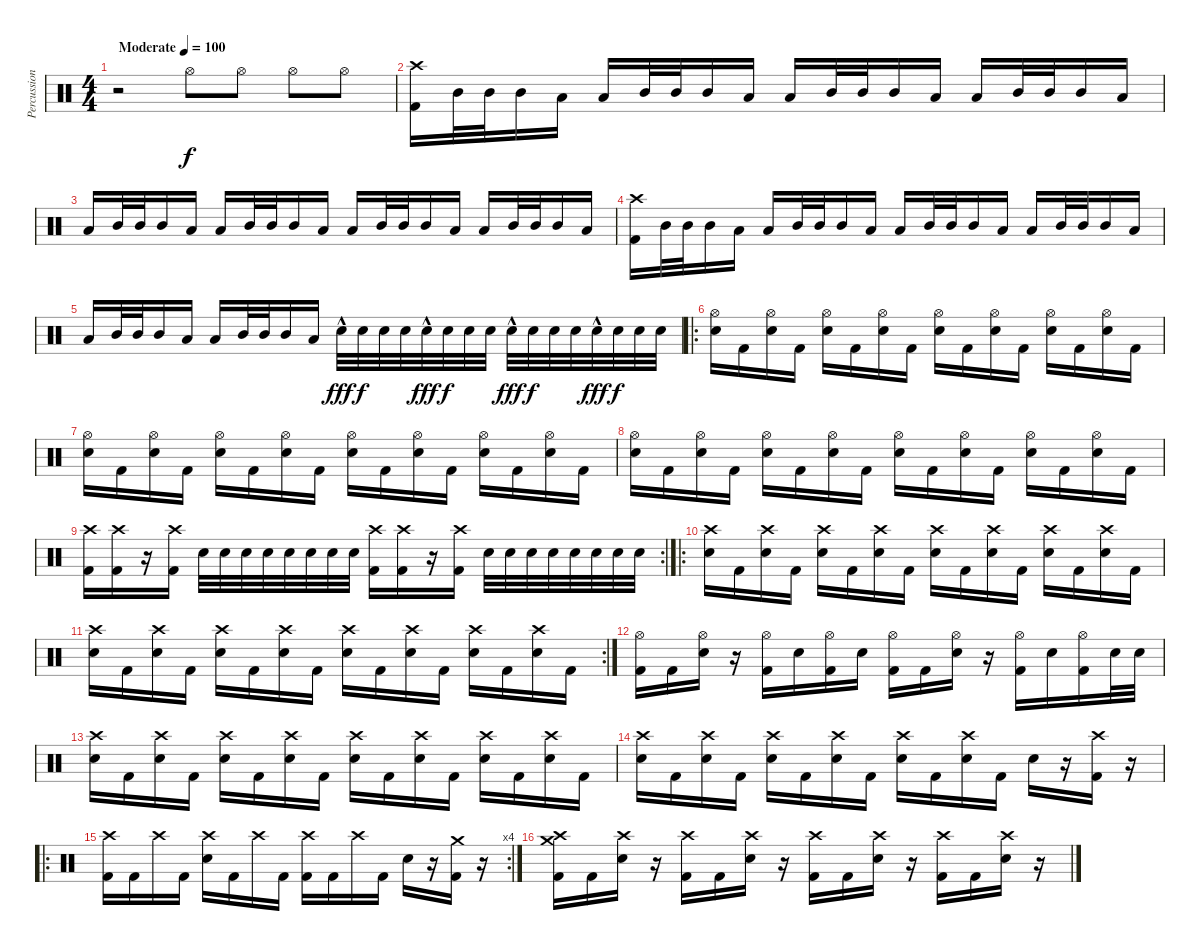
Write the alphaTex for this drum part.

\track ("Percussion" "Percussion") {instrument percussion}
\staff {score}
\articulation defaults
\ts (4 4)
\tempo (100 "Moderate")
\clef neutral
\ks c
r.2{dy f} "Hi-Hat (open)".8 "Hi-Hat (open)".8 "Hi-Hat (open)".8 "Hi-Hat (open)".8 |
("Crash high (hit)" "Kick (hit) 2").16 "Mid Tom (hit)".32 "Mid Tom (hit)".32 "Mid Tom (hit)".16 "Low Tom (hit)".16 "Low Tom (hit)".16 "Mid Tom (hit)".32 "Mid Tom (hit)".32 "Mid Tom (hit)".16 "Low Tom (hit)".16 "Low Tom (hit)".16 "Mid Tom (hit)".32 "Mid Tom (hit)".32 "Mid Tom (hit)".16 "Low Tom (hit)".16 "Low Tom (hit)".16 "Mid Tom (hit)".32 "Mid Tom (hit)".32 "Mid Tom (hit)".16 "Low Tom (hit)".16 |
"Low Tom (hit)".16 "Mid Tom (hit)".32 "Mid Tom (hit)".32 "Mid Tom (hit)".16 "Low Tom (hit)".16 "Low Tom (hit)".16 "Mid Tom (hit)".32 "Mid Tom (hit)".32 "Mid Tom (hit)".16 "Low Tom (hit)".16 "Low Tom (hit)".16 "Mid Tom (hit)".32 "Mid Tom (hit)".32 "Mid Tom (hit)".16 "Low Tom (hit)".16 "Low Tom (hit)".16 "Mid Tom (hit)".32 "Mid Tom (hit)".32 "Mid Tom (hit)".16 "Low Tom (hit)".16 |
("Crash high (hit)" "Kick (hit) 2").16 "Mid Tom (hit)".32 "Mid Tom (hit)".32 "Mid Tom (hit)".16 "Low Tom (hit)".16 "Low Tom (hit)".16 "Mid Tom (hit)".32 "Mid Tom (hit)".32 "Mid Tom (hit)".16 "Low Tom (hit)".16 "Low Tom (hit)".16 "Mid Tom (hit)".32 "Mid Tom (hit)".32 "Mid Tom (hit)".16 "Low Tom (hit)".16 "Low Tom (hit)".16 "Mid Tom (hit)".32 "Mid Tom (hit)".32 "Mid Tom (hit)".16 "Low Tom (hit)".16 |
"Low Tom (hit)".16 "Mid Tom (hit)".32 "Mid Tom (hit)".32 "Mid Tom (hit)".16 "Low Tom (hit)".16 "Low Tom (hit)".16 "Mid Tom (hit)".32 "Mid Tom (hit)".32 "Mid Tom (hit)".16 "Low Tom (hit)".16 "Snare (hit) 2"{hac}.32{dy fff} "Snare (hit) 2".32{dy f} "Snare (hit) 2".32 "Snare (hit) 2".32 "Snare (hit) 2"{hac}.32{dy fff} "Snare (hit) 2".32{dy f} "Snare (hit) 2".32 "Snare (hit) 2".32 "Snare (hit) 2"{hac}.32{dy fff} "Snare (hit) 2".32{dy f} "Snare (hit) 2".32 "Snare (hit) 2".32 "Snare (hit) 2"{hac}.32{dy fff} "Snare (hit) 2".32{dy f} "Snare (hit) 2".32 "Snare (hit) 2".32 |
\ro
("Hi-Hat (open)" "Snare (hit) 2").16 "Kick (hit) 2".16 ("Hi-Hat (open)" "Snare (hit) 2").16 "Kick (hit) 2".16 ("Hi-Hat (open)" "Snare (hit) 2").16 "Kick (hit) 2".16 ("Hi-Hat (open)" "Snare (hit) 2").16 "Kick (hit) 2".16 ("Hi-Hat (open)" "Snare (hit) 2").16 "Kick (hit) 2".16 ("Hi-Hat (open)" "Snare (hit) 2").16 "Kick (hit) 2".16 ("Hi-Hat (open)" "Snare (hit) 2").16 "Kick (hit) 2".16 ("Hi-Hat (open)" "Snare (hit) 2").16 "Kick (hit) 2".16 |
("Hi-Hat (open)" "Snare (hit) 2").16 "Kick (hit) 2".16 ("Hi-Hat (open)" "Snare (hit) 2").16 "Kick (hit) 2".16 ("Hi-Hat (open)" "Snare (hit) 2").16 "Kick (hit) 2".16 ("Hi-Hat (open)" "Snare (hit) 2").16 "Kick (hit) 2".16 ("Hi-Hat (open)" "Snare (hit) 2").16 "Kick (hit) 2".16 ("Hi-Hat (open)" "Snare (hit) 2").16 "Kick (hit) 2".16 ("Hi-Hat (open)" "Snare (hit) 2").16 "Kick (hit) 2".16 ("Hi-Hat (open)" "Snare (hit) 2").16 "Kick (hit) 2".16 |
("Hi-Hat (open)" "Snare (hit) 2").16 "Kick (hit) 2".16 ("Hi-Hat (open)" "Snare (hit) 2").16 "Kick (hit) 2".16 ("Hi-Hat (open)" "Snare (hit) 2").16 "Kick (hit) 2".16 ("Hi-Hat (open)" "Snare (hit) 2").16 "Kick (hit) 2".16 ("Hi-Hat (open)" "Snare (hit) 2").16 "Kick (hit) 2".16 ("Hi-Hat (open)" "Snare (hit) 2").16 "Kick (hit) 2".16 ("Hi-Hat (open)" "Snare (hit) 2").16 "Kick (hit) 2".16 ("Hi-Hat (open)" "Snare (hit) 2").16 "Kick (hit) 2".16 |
\rc 2
("Crash high (hit)" "Kick (hit) 2").16 ("Crash high (hit)" "Kick (hit) 2").16 r.16 ("Crash high (hit)" "Kick (hit) 2").16 "Snare (hit) 2".32 "Snare (hit) 2".32 "Snare (hit) 2".32 "Snare (hit) 2".32 "Snare (hit) 2".32 "Snare (hit) 2".32 "Snare (hit) 2".32 "Snare (hit) 2".32 ("Crash high (hit)" "Kick (hit) 2").16 ("Crash high (hit)" "Kick (hit) 2").16 r.16 ("Crash high (hit)" "Kick (hit) 2").16 "Snare (hit) 2".32 "Snare (hit) 2".32 "Snare (hit) 2".32 "Snare (hit) 2".32 "Snare (hit) 2".32 "Snare (hit) 2".32 "Snare (hit) 2".32 "Snare (hit) 2".32 |
\ro
("Crash high (hit)" "Snare (hit) 2").16 "Kick (hit) 2".16 ("Crash high (hit)" "Snare (hit) 2").16 "Kick (hit) 2".16 ("Crash high (hit)" "Snare (hit) 2").16 "Kick (hit) 2".16 ("Crash high (hit)" "Snare (hit) 2").16 "Kick (hit) 2".16 ("Crash high (hit)" "Snare (hit) 2").16 "Kick (hit) 2".16 ("Crash high (hit)" "Snare (hit) 2").16 "Kick (hit) 2".16 ("Crash high (hit)" "Snare (hit) 2").16 "Kick (hit) 2".16 ("Crash high (hit)" "Snare (hit) 2").16 "Kick (hit) 2".16 |
\rc 2
("Crash high (hit)" "Snare (hit) 2").16 "Kick (hit) 2".16 ("Crash high (hit)" "Snare (hit) 2").16 "Kick (hit) 2".16 ("Crash high (hit)" "Snare (hit) 2").16 "Kick (hit) 2".16 ("Crash high (hit)" "Snare (hit) 2").16 "Kick (hit) 2".16 ("Crash high (hit)" "Snare (hit) 2").16 "Kick (hit) 2".16 ("Crash high (hit)" "Snare (hit) 2").16 "Kick (hit) 2".16 ("Crash high (hit)" "Snare (hit) 2").16 "Kick (hit) 2".16 ("Crash high (hit)" "Snare (hit) 2").16 "Kick (hit) 2".16 |
("Hi-Hat (open)" "Kick (hit) 2").16 "Kick (hit) 2".16 ("Hi-Hat (open)" "Snare (hit) 2").16 r.16 ("Hi-Hat (open)" "Kick (hit) 2").16 "Snare (hit) 2".16 ("Hi-Hat (open)" "Kick (hit) 2").16 "Snare (hit) 2".16 ("Hi-Hat (open)" "Kick (hit) 2").16 "Kick (hit) 2".16 ("Hi-Hat (open)" "Snare (hit) 2").16 r.16 ("Hi-Hat (open)" "Kick (hit) 2").16 "Snare (hit) 2".16 ("Hi-Hat (open)" "Kick (hit) 2").16 "Snare (hit) 2".32 "Snare (hit) 2".32 |
("Crash high (hit)" "Snare (hit) 2").16 "Kick (hit) 2".16 ("Crash high (hit)" "Snare (hit) 2").16 "Kick (hit) 2".16 ("Crash high (hit)" "Snare (hit) 2").16 "Kick (hit) 2".16 ("Crash high (hit)" "Snare (hit) 2").16 "Kick (hit) 2".16 ("Crash high (hit)" "Snare (hit) 2").16 "Kick (hit) 2".16 ("Crash high (hit)" "Snare (hit) 2").16 "Kick (hit) 2".16 ("Crash high (hit)" "Snare (hit) 2").16 "Kick (hit) 2".16 ("Crash high (hit)" "Snare (hit) 2").16 "Kick (hit) 2".16 |
("Crash high (hit)" "Snare (hit) 2").16 "Kick (hit) 2".16 ("Crash high (hit)" "Snare (hit) 2").16 "Kick (hit) 2".16 ("Crash high (hit)" "Snare (hit) 2").16 "Kick (hit) 2".16 ("Crash high (hit)" "Snare (hit) 2").16 "Kick (hit) 2".16 ("Crash high (hit)" "Snare (hit) 2").16 "Kick (hit) 2".16 ("Crash high (hit)" "Snare (hit) 2").16 "Kick (hit) 2".16 "Snare (hit) 2".16 r.16 ("Crash high (hit)" "Kick (hit) 2").16 r.16 |
\ro
\rc 4
("Crash high (hit)" "Kick (hit) 2").16 "Kick (hit) 2".16 "Crash high (hit)".16 "Kick (hit) 2".16 ("Crash high (hit)" "Snare (hit) 2").16 "Kick (hit) 2".16 "Crash high (hit)".16 "Kick (hit) 2".16 ("Crash high (hit)" "Kick (hit) 2").16 "Kick (hit) 2".16 "Crash high (hit)".16 "Kick (hit) 2".16 "Snare (hit) 2".16 r.16 ("Crash medium (hit)" "Kick (hit) 2").16 r.16 |
("Crash high (hit)" "Crash medium (hit)" "Kick (hit) 2").16 "Kick (hit) 2".16 ("Crash high (hit)" "Snare (hit) 2").16 r.16 ("Crash high (hit)" "Kick (hit) 2").16 "Kick (hit) 2".16 ("Crash high (hit)" "Snare (hit) 2").16 r.16 ("Crash high (hit)" "Kick (hit) 2").16 "Kick (hit) 2".16 ("Crash high (hit)" "Snare (hit) 2").16 r.16 ("Crash high (hit)" "Kick (hit) 2").16 "Kick (hit) 2".16 ("Crash high (hit)" "Snare (hit) 2").16 r.16
